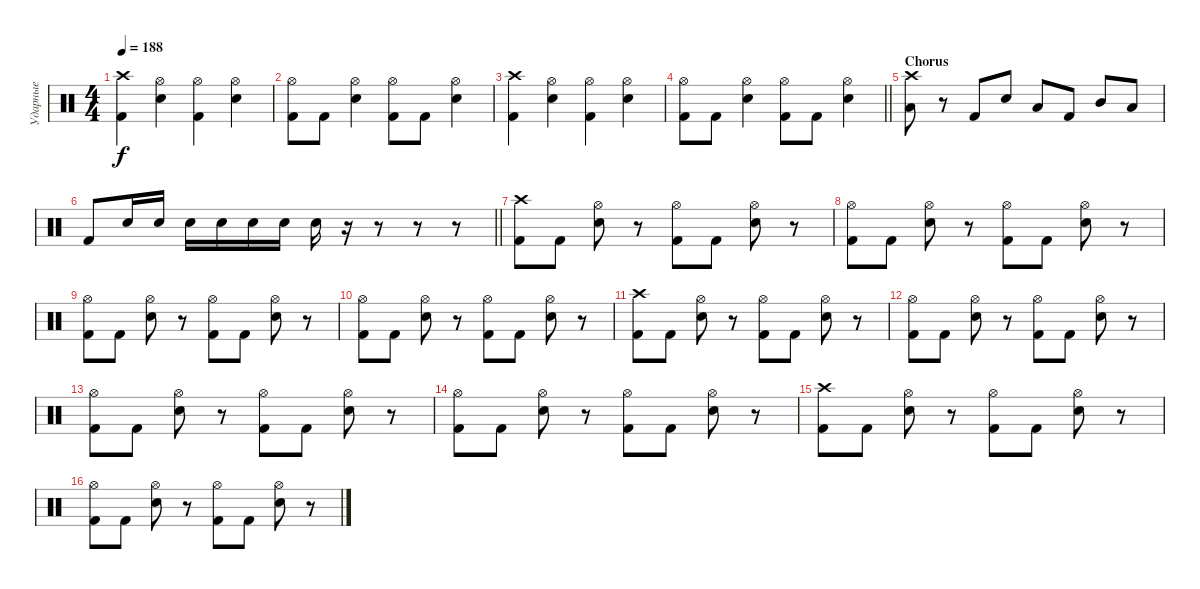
\track ("Ударные" "Ударные") {instrument percussion}
\staff {score}
\articulation defaults
\ts (4 4)
\tempo 188
\clef neutral
\ks c
("Crash high (hit)" "Kick (hit) 2").4{dy f} ("Hi-Hat (open)" "Electric Snare (hit)").4 ("Hi-Hat (open)" "Kick (hit) 2").4 ("Hi-Hat (open)" "Electric Snare (hit)").4 |
("Hi-Hat (open)" "Kick (hit) 2").8 "Kick (hit) 2".8 ("Hi-Hat (open)" "Electric Snare (hit)").4 ("Hi-Hat (open)" "Kick (hit) 2").8 "Kick (hit) 2".8 ("Hi-Hat (open)" "Electric Snare (hit)").4 |
("Crash high (hit)" "Kick (hit) 2").4 ("Hi-Hat (open)" "Electric Snare (hit)").4 ("Hi-Hat (open)" "Kick (hit) 2").4 ("Hi-Hat (open)" "Electric Snare (hit)").4 |
\barLineRight lightlight
("Hi-Hat (open)" "Kick (hit) 2").8 "Kick (hit) 2".8 ("Hi-Hat (open)" "Electric Snare (hit)").4 ("Hi-Hat (open)" "Kick (hit) 2").8 "Kick (hit) 2".8 ("Hi-Hat (open)" "Electric Snare (hit)").4 |
\section ("" "Chorus")
("Crash high (hit)" "Low Tom (hit)").8 r.8 "Kick (hit) 2".8 "Electric Snare (hit)".8 "Low Tom (hit)".8 "Kick (hit) 2".8 "Mid Tom (hit)".8 "Low Tom (hit)".8 |
\barLineRight lightlight "Kick (hit) 2".8 "Electric Snare (hit)".16 "Electric Snare (hit)".16 "Electric Snare (hit)".16 "Electric Snare (hit)".16 "Electric Snare (hit)".16 "Electric Snare (hit)".16 "Electric Snare (hit)".16
r.16 r.8 r.8 r.8 |
("Crash high (hit)" "Kick (hit) 2").8 "Kick (hit) 2".8 ("Hi-Hat (open)" "Electric Snare (hit)").8 r.8 ("Hi-Hat (open)" "Kick (hit) 2").8 "Kick (hit) 2".8 ("Hi-Hat (open)" "Electric Snare (hit)").8 r.8 |
("Hi-Hat (open)" "Kick (hit) 2").8 "Kick (hit) 2".8 ("Hi-Hat (open)" "Electric Snare (hit)").8 r.8 ("Hi-Hat (open)" "Kick (hit) 2").8 "Kick (hit) 2".8 ("Hi-Hat (open)" "Electric Snare (hit)").8 r.8 |
("Hi-Hat (open)" "Kick (hit) 2").8 "Kick (hit) 2".8 ("Hi-Hat (open)" "Electric Snare (hit)").8 r.8 ("Hi-Hat (open)" "Kick (hit) 2").8 "Kick (hit) 2".8 ("Hi-Hat (open)" "Electric Snare (hit)").8 r.8 |
("Hi-Hat (open)" "Kick (hit) 2").8 "Kick (hit) 2".8 ("Hi-Hat (open)" "Electric Snare (hit)").8 r.8 ("Hi-Hat (open)" "Kick (hit) 2").8 "Kick (hit) 2".8 ("Hi-Hat (open)" "Electric Snare (hit)").8 r.8 |
("Crash high (hit)" "Kick (hit) 2").8 "Kick (hit) 2".8 ("Hi-Hat (open)" "Electric Snare (hit)").8 r.8 ("Hi-Hat (open)" "Kick (hit) 2").8 "Kick (hit) 2".8 ("Hi-Hat (open)" "Electric Snare (hit)").8 r.8 |
("Hi-Hat (open)" "Kick (hit) 2").8 "Kick (hit) 2".8 ("Hi-Hat (open)" "Electric Snare (hit)").8 r.8 ("Hi-Hat (open)" "Kick (hit) 2").8 "Kick (hit) 2".8 ("Hi-Hat (open)" "Electric Snare (hit)").8 r.8 |
("Hi-Hat (open)" "Kick (hit) 2").8 "Kick (hit) 2".8 ("Hi-Hat (open)" "Electric Snare (hit)").8 r.8 ("Hi-Hat (open)" "Kick (hit) 2").8 "Kick (hit) 2".8 ("Hi-Hat (open)" "Electric Snare (hit)").8 r.8 |
("Hi-Hat (open)" "Kick (hit) 2").8 "Kick (hit) 2".8 ("Hi-Hat (open)" "Electric Snare (hit)").8 r.8 ("Hi-Hat (open)" "Kick (hit) 2").8 "Kick (hit) 2".8 ("Hi-Hat (open)" "Electric Snare (hit)").8 r.8 |
("Crash high (hit)" "Kick (hit) 2").8 "Kick (hit) 2".8 ("Hi-Hat (open)" "Electric Snare (hit)").8 r.8 ("Hi-Hat (open)" "Kick (hit) 2").8 "Kick (hit) 2".8 ("Hi-Hat (open)" "Electric Snare (hit)").8 r.8 |
("Hi-Hat (open)" "Kick (hit) 2").8 "Kick (hit) 2".8 ("Hi-Hat (open)" "Electric Snare (hit)").8 r.8 ("Hi-Hat (open)" "Kick (hit) 2").8 "Kick (hit) 2".8 ("Hi-Hat (open)" "Electric Snare (hit)").8 r.8
